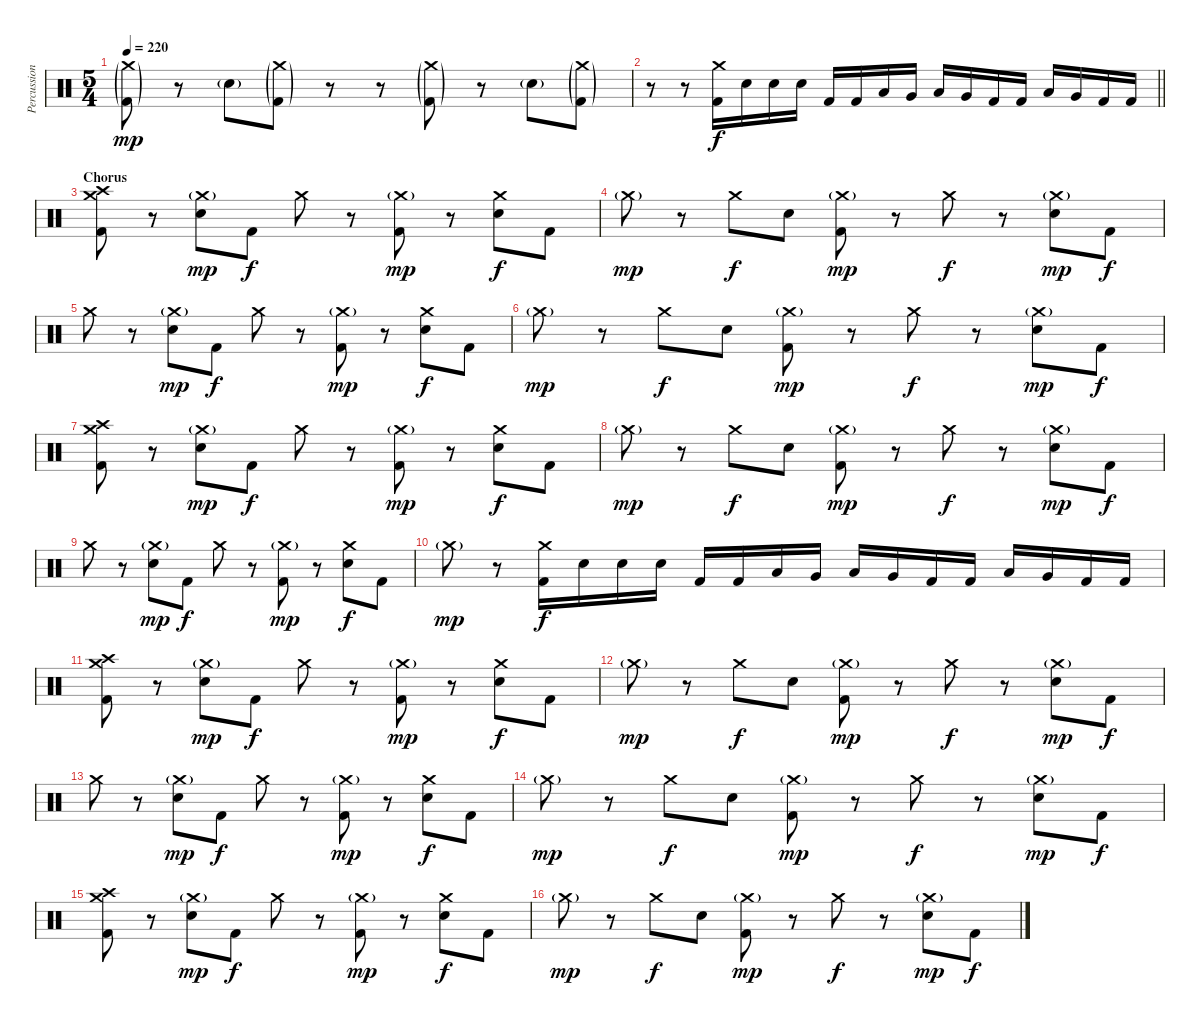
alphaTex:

\track ("Percussion" "Percussion") {instrument percussion}
\staff {score}
\articulation defaults
\ts (5 4)
\tempo 220
\clef neutral
\ks c
("Crash medium (hit)"{g} "Kick (hit) 2"{g}).8{dy mp} r.8 "Electric Snare (hit)"{g}.8 ("Crash medium (hit)"{g} "Kick (hit) 2"{g}).8 r.8 r.8 ("Crash medium (hit)"{g} "Kick (hit) 2"{g}).8 r.8 "Electric Snare (hit)"{g}.8 ("Crash medium (hit)"{g} "Kick (hit) 2"{g}).8 |
\barLineRight lightlight
r.8 r.8 ("Crash medium (hit)" "Kick (hit) 2").16{dy f} "Electric Snare (hit)".16 "Electric Snare (hit)".16 "Electric Snare (hit)".16 "Kick (hit) 2".16 "Kick (hit) 2".16 "Low Floor Tom (hit)".16 "Very Low Tom (hit)".16 "Low Floor Tom (hit)".16 "Very Low Tom (hit)".16 "Kick (hit) 2".16 "Kick (hit) 2".16 "Low Floor Tom (hit)".16 "Very Low Tom (hit)".16 "Kick (hit) 2".16 "Kick (hit) 2".16 |
\section ("" "Chorus")
("Crash medium (hit)" "Crash high (hit)" "Kick (hit) 2").8 r.8 ("Crash medium (hit)"{g} "Electric Snare (hit)").8{dy mp} "Kick (hit) 2".8{dy f} "Crash medium (hit)".8 r.8 ("Crash medium (hit)"{g} "Kick (hit) 2").8{dy mp} r.8 ("Crash medium (hit)" "Electric Snare (hit)").8{dy f} "Kick (hit) 2".8 |
"Crash medium (hit)"{g}.8{dy mp} r.8 "Crash medium (hit)".8{dy f} "Electric Snare (hit)".8 ("Crash medium (hit)"{g} "Kick (hit) 2").8{dy mp} r.8 "Crash medium (hit)".8{dy f} r.8 ("Crash medium (hit)"{g} "Electric Snare (hit)").8{dy mp} "Kick (hit) 2".8{dy f} |
"Crash medium (hit)".8 r.8 ("Crash medium (hit)"{g} "Electric Snare (hit)").8{dy mp} "Kick (hit) 2".8{dy f} "Crash medium (hit)".8 r.8 ("Crash medium (hit)"{g} "Kick (hit) 2").8{dy mp} r.8 ("Crash medium (hit)" "Electric Snare (hit)").8{dy f} "Kick (hit) 2".8 |
"Crash medium (hit)"{g}.8{dy mp} r.8 "Crash medium (hit)".8{dy f} "Electric Snare (hit)".8 ("Crash medium (hit)"{g} "Kick (hit) 2").8{dy mp} r.8 "Crash medium (hit)".8{dy f} r.8 ("Crash medium (hit)"{g} "Electric Snare (hit)").8{dy mp} "Kick (hit) 2".8{dy f} |
("Crash medium (hit)" "Crash high (hit)" "Kick (hit) 2").8 r.8 ("Crash medium (hit)"{g} "Electric Snare (hit)").8{dy mp} "Kick (hit) 2".8{dy f} "Crash medium (hit)".8 r.8 ("Crash medium (hit)"{g} "Kick (hit) 2").8{dy mp} r.8 ("Crash medium (hit)" "Electric Snare (hit)").8{dy f} "Kick (hit) 2".8 |
"Crash medium (hit)"{g}.8{dy mp} r.8 "Crash medium (hit)".8{dy f} "Electric Snare (hit)".8 ("Crash medium (hit)"{g} "Kick (hit) 2").8{dy mp} r.8 "Crash medium (hit)".8{dy f} r.8 ("Crash medium (hit)"{g} "Electric Snare (hit)").8{dy mp} "Kick (hit) 2".8{dy f} |
"Crash medium (hit)".8 r.8 ("Crash medium (hit)"{g} "Electric Snare (hit)").8{dy mp} "Kick (hit) 2".8{dy f} "Crash medium (hit)".8 r.8 ("Crash medium (hit)"{g} "Kick (hit) 2").8{dy mp} r.8 ("Crash medium (hit)" "Electric Snare (hit)").8{dy f} "Kick (hit) 2".8 |
"Crash medium (hit)"{g}.8{dy mp} r.8 ("Crash medium (hit)" "Kick (hit) 2").16{dy f} "Electric Snare (hit)".16 "Electric Snare (hit)".16 "Electric Snare (hit)".16 "Kick (hit) 2".16 "Kick (hit) 2".16 "Low Floor Tom (hit)".16 "Very Low Tom (hit)".16 "Low Floor Tom (hit)".16 "Very Low Tom (hit)".16 "Kick (hit) 2".16 "Kick (hit) 2".16 "Low Floor Tom (hit)".16 "Very Low Tom (hit)".16 "Kick (hit) 2".16 "Kick (hit) 2".16 |
("Crash medium (hit)" "Crash high (hit)" "Kick (hit) 2").8 r.8 ("Crash medium (hit)"{g} "Electric Snare (hit)").8{dy mp} "Kick (hit) 2".8{dy f} "Crash medium (hit)".8 r.8 ("Crash medium (hit)"{g} "Kick (hit) 2").8{dy mp} r.8 ("Crash medium (hit)" "Electric Snare (hit)").8{dy f} "Kick (hit) 2".8 |
"Crash medium (hit)"{g}.8{dy mp} r.8 "Crash medium (hit)".8{dy f} "Electric Snare (hit)".8 ("Crash medium (hit)"{g} "Kick (hit) 2").8{dy mp} r.8 "Crash medium (hit)".8{dy f} r.8 ("Crash medium (hit)"{g} "Electric Snare (hit)").8{dy mp} "Kick (hit) 2".8{dy f} |
"Crash medium (hit)".8 r.8 ("Crash medium (hit)"{g} "Electric Snare (hit)").8{dy mp} "Kick (hit) 2".8{dy f} "Crash medium (hit)".8 r.8 ("Crash medium (hit)"{g} "Kick (hit) 2").8{dy mp} r.8 ("Crash medium (hit)" "Electric Snare (hit)").8{dy f} "Kick (hit) 2".8 |
"Crash medium (hit)"{g}.8{dy mp} r.8 "Crash medium (hit)".8{dy f} "Electric Snare (hit)".8 ("Crash medium (hit)"{g} "Kick (hit) 2").8{dy mp} r.8 "Crash medium (hit)".8{dy f} r.8 ("Crash medium (hit)"{g} "Electric Snare (hit)").8{dy mp} "Kick (hit) 2".8{dy f} |
("Crash medium (hit)" "Crash high (hit)" "Kick (hit) 2").8 r.8 ("Crash medium (hit)"{g} "Electric Snare (hit)").8{dy mp} "Kick (hit) 2".8{dy f} "Crash medium (hit)".8 r.8 ("Crash medium (hit)"{g} "Kick (hit) 2").8{dy mp} r.8 ("Crash medium (hit)" "Electric Snare (hit)").8{dy f} "Kick (hit) 2".8 |
"Crash medium (hit)"{g}.8{dy mp} r.8 "Crash medium (hit)".8{dy f} "Electric Snare (hit)".8 ("Crash medium (hit)"{g} "Kick (hit) 2").8{dy mp} r.8 "Crash medium (hit)".8{dy f} r.8 ("Crash medium (hit)"{g} "Electric Snare (hit)").8{dy mp} "Kick (hit) 2".8{dy f}
